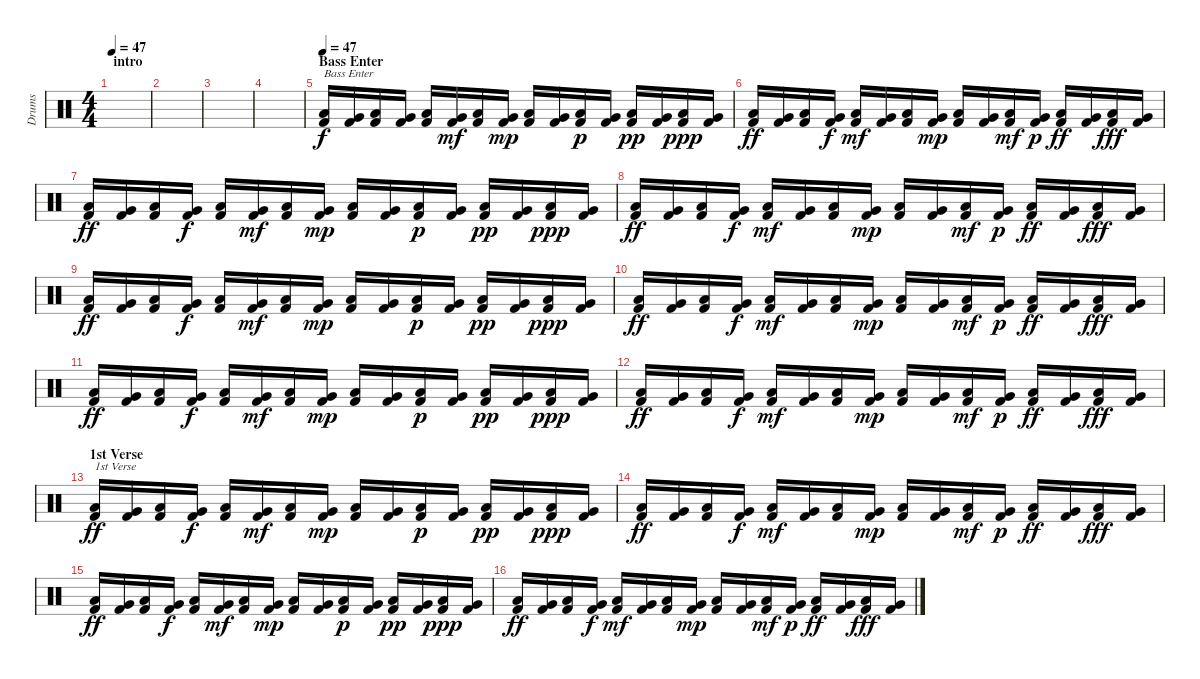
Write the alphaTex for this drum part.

\track ("Drums" "Drums") {instrument percussion}
\staff {score}
\articulation defaults
\ts (4 4)
\section ("" "intro")
\tempo 47
\tempo 45
\tempo 47
\clef neutral
\ks c
|
|
|
|
\section ("" "Bass Enter")
\tempo 47
("Low Floor Tom (hit)" "Kick (hit) 2").16{txt "Bass Enter"} ("Very Low Tom (hit)" "Kick (hit) 2").16 ("Low Floor Tom (hit)" "Kick (hit) 2").16 ("Very Low Tom (hit)" "Kick (hit) 2").16{dy f} ("Low Floor Tom (hit)" "Kick (hit) 2").16 ("Very Low Tom (hit)" "Kick (hit) 2").16{dy mf} ("Low Floor Tom (hit)" "Kick (hit) 2").16 ("Very Low Tom (hit)" "Kick (hit) 2").16{dy mp} ("Low Floor Tom (hit)" "Kick (hit) 2").16 ("Very Low Tom (hit)" "Kick (hit) 2").16 ("Low Floor Tom (hit)" "Kick (hit) 2").16{dy p} ("Very Low Tom (hit)" "Kick (hit) 2").16 ("Low Floor Tom (hit)" "Kick (hit) 2").16{dy pp} ("Very Low Tom (hit)" "Kick (hit) 2").16 ("Low Floor Tom (hit)" "Kick (hit) 2").16{dy ppp} ("Very Low Tom (hit)" "Kick (hit) 2").16 |
("Low Floor Tom (hit)" "Kick (hit) 2").16{dy ff} ("Very Low Tom (hit)" "Kick (hit) 2").16 ("Low Floor Tom (hit)" "Kick (hit) 2").16 ("Very Low Tom (hit)" "Kick (hit) 2").16{dy f} ("Low Floor Tom (hit)" "Kick (hit) 2").16{dy mf} ("Very Low Tom (hit)" "Kick (hit) 2").16 ("Low Floor Tom (hit)" "Kick (hit) 2").16 ("Very Low Tom (hit)" "Kick (hit) 2").16{dy mp} ("Low Floor Tom (hit)" "Kick (hit) 2").16 ("Very Low Tom (hit)" "Kick (hit) 2").16 ("Low Floor Tom (hit)" "Kick (hit) 2").16{dy mf} ("Very Low Tom (hit)" "Kick (hit) 2").16{dy p} ("Low Floor Tom (hit)" "Kick (hit) 2").16{dy ff} ("Very Low Tom (hit)" "Kick (hit) 2").16 ("Low Floor Tom (hit)" "Kick (hit) 2").16{dy fff} ("Very Low Tom (hit)" "Kick (hit) 2").16 |
("Low Floor Tom (hit)" "Kick (hit) 2").16{dy ff} ("Very Low Tom (hit)" "Kick (hit) 2").16 ("Low Floor Tom (hit)" "Kick (hit) 2").16 ("Very Low Tom (hit)" "Kick (hit) 2").16{dy f} ("Low Floor Tom (hit)" "Kick (hit) 2").16 ("Very Low Tom (hit)" "Kick (hit) 2").16{dy mf} ("Low Floor Tom (hit)" "Kick (hit) 2").16 ("Very Low Tom (hit)" "Kick (hit) 2").16{dy mp} ("Low Floor Tom (hit)" "Kick (hit) 2").16 ("Very Low Tom (hit)" "Kick (hit) 2").16 ("Low Floor Tom (hit)" "Kick (hit) 2").16{dy p} ("Very Low Tom (hit)" "Kick (hit) 2").16 ("Low Floor Tom (hit)" "Kick (hit) 2").16{dy pp} ("Very Low Tom (hit)" "Kick (hit) 2").16 ("Low Floor Tom (hit)" "Kick (hit) 2").16{dy ppp} ("Very Low Tom (hit)" "Kick (hit) 2").16 |
("Low Floor Tom (hit)" "Kick (hit) 2").16{dy ff} ("Very Low Tom (hit)" "Kick (hit) 2").16 ("Low Floor Tom (hit)" "Kick (hit) 2").16 ("Very Low Tom (hit)" "Kick (hit) 2").16{dy f} ("Low Floor Tom (hit)" "Kick (hit) 2").16{dy mf} ("Very Low Tom (hit)" "Kick (hit) 2").16 ("Low Floor Tom (hit)" "Kick (hit) 2").16 ("Very Low Tom (hit)" "Kick (hit) 2").16{dy mp} ("Low Floor Tom (hit)" "Kick (hit) 2").16 ("Very Low Tom (hit)" "Kick (hit) 2").16 ("Low Floor Tom (hit)" "Kick (hit) 2").16{dy mf} ("Very Low Tom (hit)" "Kick (hit) 2").16{dy p} ("Low Floor Tom (hit)" "Kick (hit) 2").16{dy ff} ("Very Low Tom (hit)" "Kick (hit) 2").16 ("Low Floor Tom (hit)" "Kick (hit) 2").16{dy fff} ("Very Low Tom (hit)" "Kick (hit) 2").16 |
("Low Floor Tom (hit)" "Kick (hit) 2").16{dy ff} ("Very Low Tom (hit)" "Kick (hit) 2").16 ("Low Floor Tom (hit)" "Kick (hit) 2").16 ("Very Low Tom (hit)" "Kick (hit) 2").16{dy f} ("Low Floor Tom (hit)" "Kick (hit) 2").16 ("Very Low Tom (hit)" "Kick (hit) 2").16{dy mf} ("Low Floor Tom (hit)" "Kick (hit) 2").16 ("Very Low Tom (hit)" "Kick (hit) 2").16{dy mp} ("Low Floor Tom (hit)" "Kick (hit) 2").16 ("Very Low Tom (hit)" "Kick (hit) 2").16 ("Low Floor Tom (hit)" "Kick (hit) 2").16{dy p} ("Very Low Tom (hit)" "Kick (hit) 2").16 ("Low Floor Tom (hit)" "Kick (hit) 2").16{dy pp} ("Very Low Tom (hit)" "Kick (hit) 2").16 ("Low Floor Tom (hit)" "Kick (hit) 2").16{dy ppp} ("Very Low Tom (hit)" "Kick (hit) 2").16 |
("Low Floor Tom (hit)" "Kick (hit) 2").16{dy ff} ("Very Low Tom (hit)" "Kick (hit) 2").16 ("Low Floor Tom (hit)" "Kick (hit) 2").16 ("Very Low Tom (hit)" "Kick (hit) 2").16{dy f} ("Low Floor Tom (hit)" "Kick (hit) 2").16{dy mf} ("Very Low Tom (hit)" "Kick (hit) 2").16 ("Low Floor Tom (hit)" "Kick (hit) 2").16 ("Very Low Tom (hit)" "Kick (hit) 2").16{dy mp} ("Low Floor Tom (hit)" "Kick (hit) 2").16 ("Very Low Tom (hit)" "Kick (hit) 2").16 ("Low Floor Tom (hit)" "Kick (hit) 2").16{dy mf} ("Very Low Tom (hit)" "Kick (hit) 2").16{dy p} ("Low Floor Tom (hit)" "Kick (hit) 2").16{dy ff} ("Very Low Tom (hit)" "Kick (hit) 2").16 ("Low Floor Tom (hit)" "Kick (hit) 2").16{dy fff} ("Very Low Tom (hit)" "Kick (hit) 2").16 |
("Low Floor Tom (hit)" "Kick (hit) 2").16{dy ff} ("Very Low Tom (hit)" "Kick (hit) 2").16 ("Low Floor Tom (hit)" "Kick (hit) 2").16 ("Very Low Tom (hit)" "Kick (hit) 2").16{dy f} ("Low Floor Tom (hit)" "Kick (hit) 2").16 ("Very Low Tom (hit)" "Kick (hit) 2").16{dy mf} ("Low Floor Tom (hit)" "Kick (hit) 2").16 ("Very Low Tom (hit)" "Kick (hit) 2").16{dy mp} ("Low Floor Tom (hit)" "Kick (hit) 2").16 ("Very Low Tom (hit)" "Kick (hit) 2").16 ("Low Floor Tom (hit)" "Kick (hit) 2").16{dy p} ("Very Low Tom (hit)" "Kick (hit) 2").16 ("Low Floor Tom (hit)" "Kick (hit) 2").16{dy pp} ("Very Low Tom (hit)" "Kick (hit) 2").16 ("Low Floor Tom (hit)" "Kick (hit) 2").16{dy ppp} ("Very Low Tom (hit)" "Kick (hit) 2").16 |
("Low Floor Tom (hit)" "Kick (hit) 2").16{dy ff} ("Very Low Tom (hit)" "Kick (hit) 2").16 ("Low Floor Tom (hit)" "Kick (hit) 2").16 ("Very Low Tom (hit)" "Kick (hit) 2").16{dy f} ("Low Floor Tom (hit)" "Kick (hit) 2").16{dy mf} ("Very Low Tom (hit)" "Kick (hit) 2").16 ("Low Floor Tom (hit)" "Kick (hit) 2").16 ("Very Low Tom (hit)" "Kick (hit) 2").16{dy mp} ("Low Floor Tom (hit)" "Kick (hit) 2").16 ("Very Low Tom (hit)" "Kick (hit) 2").16 ("Low Floor Tom (hit)" "Kick (hit) 2").16{dy mf} ("Very Low Tom (hit)" "Kick (hit) 2").16{dy p} ("Low Floor Tom (hit)" "Kick (hit) 2").16{dy ff} ("Very Low Tom (hit)" "Kick (hit) 2").16 ("Low Floor Tom (hit)" "Kick (hit) 2").16{dy fff} ("Very Low Tom (hit)" "Kick (hit) 2").16 |
\section ("" "1st Verse")
("Low Floor Tom (hit)" "Kick (hit) 2").16{txt "1st Verse" dy ff} ("Very Low Tom (hit)" "Kick (hit) 2").16 ("Low Floor Tom (hit)" "Kick (hit) 2").16 ("Very Low Tom (hit)" "Kick (hit) 2").16{dy f} ("Low Floor Tom (hit)" "Kick (hit) 2").16 ("Very Low Tom (hit)" "Kick (hit) 2").16{dy mf} ("Low Floor Tom (hit)" "Kick (hit) 2").16 ("Very Low Tom (hit)" "Kick (hit) 2").16{dy mp} ("Low Floor Tom (hit)" "Kick (hit) 2").16 ("Very Low Tom (hit)" "Kick (hit) 2").16 ("Low Floor Tom (hit)" "Kick (hit) 2").16{dy p} ("Very Low Tom (hit)" "Kick (hit) 2").16 ("Low Floor Tom (hit)" "Kick (hit) 2").16{dy pp} ("Very Low Tom (hit)" "Kick (hit) 2").16 ("Low Floor Tom (hit)" "Kick (hit) 2").16{dy ppp} ("Very Low Tom (hit)" "Kick (hit) 2").16 |
("Low Floor Tom (hit)" "Kick (hit) 2").16{dy ff} ("Very Low Tom (hit)" "Kick (hit) 2").16 ("Low Floor Tom (hit)" "Kick (hit) 2").16 ("Very Low Tom (hit)" "Kick (hit) 2").16{dy f} ("Low Floor Tom (hit)" "Kick (hit) 2").16{dy mf} ("Very Low Tom (hit)" "Kick (hit) 2").16 ("Low Floor Tom (hit)" "Kick (hit) 2").16 ("Very Low Tom (hit)" "Kick (hit) 2").16{dy mp} ("Low Floor Tom (hit)" "Kick (hit) 2").16 ("Very Low Tom (hit)" "Kick (hit) 2").16 ("Low Floor Tom (hit)" "Kick (hit) 2").16{dy mf} ("Very Low Tom (hit)" "Kick (hit) 2").16{dy p} ("Low Floor Tom (hit)" "Kick (hit) 2").16{dy ff} ("Very Low Tom (hit)" "Kick (hit) 2").16 ("Low Floor Tom (hit)" "Kick (hit) 2").16{dy fff} ("Very Low Tom (hit)" "Kick (hit) 2").16 |
("Low Floor Tom (hit)" "Kick (hit) 2").16{dy ff} ("Very Low Tom (hit)" "Kick (hit) 2").16 ("Low Floor Tom (hit)" "Kick (hit) 2").16 ("Very Low Tom (hit)" "Kick (hit) 2").16{dy f} ("Low Floor Tom (hit)" "Kick (hit) 2").16 ("Very Low Tom (hit)" "Kick (hit) 2").16{dy mf} ("Low Floor Tom (hit)" "Kick (hit) 2").16 ("Very Low Tom (hit)" "Kick (hit) 2").16{dy mp} ("Low Floor Tom (hit)" "Kick (hit) 2").16 ("Very Low Tom (hit)" "Kick (hit) 2").16 ("Low Floor Tom (hit)" "Kick (hit) 2").16{dy p} ("Very Low Tom (hit)" "Kick (hit) 2").16 ("Low Floor Tom (hit)" "Kick (hit) 2").16{dy pp} ("Very Low Tom (hit)" "Kick (hit) 2").16 ("Low Floor Tom (hit)" "Kick (hit) 2").16{dy ppp} ("Very Low Tom (hit)" "Kick (hit) 2").16 |
("Low Floor Tom (hit)" "Kick (hit) 2").16{dy ff} ("Very Low Tom (hit)" "Kick (hit) 2").16 ("Low Floor Tom (hit)" "Kick (hit) 2").16 ("Very Low Tom (hit)" "Kick (hit) 2").16{dy f} ("Low Floor Tom (hit)" "Kick (hit) 2").16{dy mf} ("Very Low Tom (hit)" "Kick (hit) 2").16 ("Low Floor Tom (hit)" "Kick (hit) 2").16 ("Very Low Tom (hit)" "Kick (hit) 2").16{dy mp} ("Low Floor Tom (hit)" "Kick (hit) 2").16 ("Very Low Tom (hit)" "Kick (hit) 2").16 ("Low Floor Tom (hit)" "Kick (hit) 2").16{dy mf} ("Very Low Tom (hit)" "Kick (hit) 2").16{dy p} ("Low Floor Tom (hit)" "Kick (hit) 2").16{dy ff} ("Very Low Tom (hit)" "Kick (hit) 2").16 ("Low Floor Tom (hit)" "Kick (hit) 2").16{dy fff} ("Very Low Tom (hit)" "Kick (hit) 2").16
